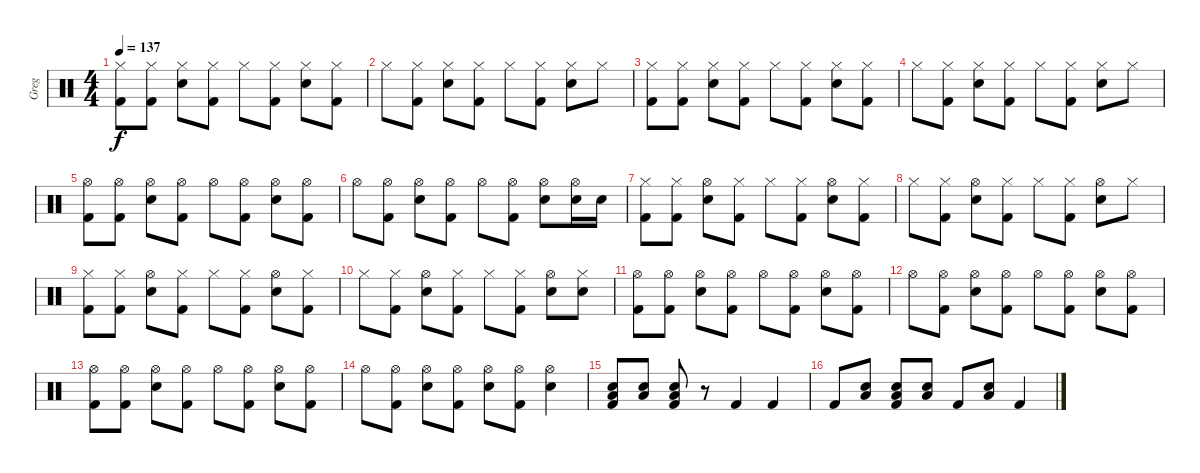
\track ("Greg" "Greg") {instrument percussion}
\staff {score}
\articulation defaults
\ts (4 4)
\tempo 137
\clef neutral
\ks c
("Hi-Hat (closed)" "Kick (hit) 2").8{dy f} ("Hi-Hat (closed)" "Kick (hit) 2").8 ("Hi-Hat (closed)" "Electric Snare (hit)").8 ("Hi-Hat (closed)" "Kick (hit) 2").8 "Hi-Hat (closed)".8 ("Hi-Hat (closed)" "Kick (hit) 2").8 ("Hi-Hat (closed)" "Electric Snare (hit)").8 ("Hi-Hat (closed)" "Kick (hit) 2").8 |
"Hi-Hat (closed)".8 ("Hi-Hat (closed)" "Kick (hit) 2").8 ("Hi-Hat (closed)" "Electric Snare (hit)").8 ("Hi-Hat (closed)" "Kick (hit) 2").8 "Hi-Hat (closed)".8 ("Hi-Hat (closed)" "Kick (hit) 2").8 ("Hi-Hat (closed)" "Electric Snare (hit)").8 "Hi-Hat (closed)".8 |
("Hi-Hat (closed)" "Kick (hit) 2").8 ("Hi-Hat (closed)" "Kick (hit) 2").8 ("Hi-Hat (closed)" "Electric Snare (hit)").8 ("Hi-Hat (closed)" "Kick (hit) 2").8 "Hi-Hat (closed)".8 ("Hi-Hat (closed)" "Kick (hit) 2").8 ("Hi-Hat (closed)" "Electric Snare (hit)").8 ("Hi-Hat (closed)" "Kick (hit) 2").8 |
"Hi-Hat (closed)".8 ("Hi-Hat (closed)" "Kick (hit) 2").8 ("Hi-Hat (closed)" "Electric Snare (hit)").8 ("Hi-Hat (closed)" "Kick (hit) 2").8 "Hi-Hat (closed)".8 ("Hi-Hat (closed)" "Kick (hit) 2").8 ("Hi-Hat (closed)" "Electric Snare (hit)").8 "Hi-Hat (closed)".8 |
("Hi-Hat (open)" "Kick (hit) 2").8 ("Hi-Hat (open)" "Kick (hit) 2").8 ("Hi-Hat (open)" "Electric Snare (hit)").8 ("Hi-Hat (open)" "Kick (hit) 2").8 "Hi-Hat (open)".8 ("Hi-Hat (open)" "Kick (hit) 2").8 ("Hi-Hat (open)" "Electric Snare (hit)").8 ("Hi-Hat (open)" "Kick (hit) 2").8 |
"Hi-Hat (open)".8 ("Hi-Hat (open)" "Kick (hit) 2").8 ("Hi-Hat (open)" "Electric Snare (hit)").8 ("Hi-Hat (open)" "Kick (hit) 2").8 "Hi-Hat (open)".8 ("Hi-Hat (open)" "Kick (hit) 2").8 ("Hi-Hat (open)" "Electric Snare (hit)").8 ("Hi-Hat (open)" "Electric Snare (hit)").16 "Electric Snare (hit)".16 |
("Hi-Hat (closed)" "Kick (hit) 2").8 ("Hi-Hat (closed)" "Kick (hit) 2").8 ("Hi-Hat (open)" "Electric Snare (hit)").8 ("Hi-Hat (closed)" "Kick (hit) 2").8 "Hi-Hat (closed)".8 ("Hi-Hat (closed)" "Kick (hit) 2").8 ("Hi-Hat (open)" "Electric Snare (hit)").8 ("Hi-Hat (closed)" "Kick (hit) 2").8 |
"Hi-Hat (closed)".8 ("Hi-Hat (closed)" "Kick (hit) 2").8 ("Hi-Hat (open)" "Electric Snare (hit)").8 ("Hi-Hat (closed)" "Kick (hit) 2").8 "Hi-Hat (closed)".8 ("Hi-Hat (closed)" "Kick (hit) 2").8 ("Hi-Hat (open)" "Electric Snare (hit)").8 "Hi-Hat (closed)".8 |
("Hi-Hat (closed)" "Kick (hit) 2").8 ("Hi-Hat (closed)" "Kick (hit) 2").8 ("Hi-Hat (open)" "Electric Snare (hit)").8 ("Hi-Hat (closed)" "Kick (hit) 2").8 "Hi-Hat (closed)".8 ("Hi-Hat (closed)" "Kick (hit) 2").8 ("Hi-Hat (open)" "Electric Snare (hit)").8 ("Hi-Hat (closed)" "Kick (hit) 2").8 |
"Hi-Hat (closed)".8 ("Hi-Hat (closed)" "Kick (hit) 2").8 ("Hi-Hat (open)" "Electric Snare (hit)").8 ("Hi-Hat (closed)" "Kick (hit) 2").8 "Hi-Hat (closed)".8 ("Hi-Hat (closed)" "Kick (hit) 2").8 ("Hi-Hat (open)" "Electric Snare (hit)").8 ("Hi-Hat (closed)" "Electric Snare (hit)").8 |
("Hi-Hat (open)" "Kick (hit) 2").8 ("Hi-Hat (open)" "Kick (hit) 2").8 ("Hi-Hat (open)" "Electric Snare (hit)").8 ("Hi-Hat (open)" "Kick (hit) 2").8 "Hi-Hat (open)".8 ("Hi-Hat (open)" "Kick (hit) 2").8 ("Hi-Hat (open)" "Electric Snare (hit)").8 ("Hi-Hat (open)" "Kick (hit) 2").8 |
"Hi-Hat (open)".8 ("Hi-Hat (open)" "Kick (hit) 2").8 ("Hi-Hat (open)" "Electric Snare (hit)").8 ("Hi-Hat (open)" "Kick (hit) 2").8 "Hi-Hat (open)".8 ("Hi-Hat (open)" "Kick (hit) 2").8 ("Hi-Hat (open)" "Electric Snare (hit)").8 ("Hi-Hat (open)" "Kick (hit) 2").8 |
("Hi-Hat (open)" "Kick (hit) 2").8 ("Hi-Hat (open)" "Kick (hit) 2").8 ("Hi-Hat (open)" "Electric Snare (hit)").8 ("Hi-Hat (open)" "Kick (hit) 2").8 "Hi-Hat (open)".8 ("Hi-Hat (open)" "Kick (hit) 2").8 ("Hi-Hat (open)" "Electric Snare (hit)").8 ("Hi-Hat (open)" "Kick (hit) 2").8 |
"Hi-Hat (open)".8 ("Hi-Hat (open)" "Kick (hit) 2").8 ("Hi-Hat (open)" "Electric Snare (hit)").8 ("Hi-Hat (open)" "Kick (hit) 2").8 ("Hi-Hat (open)" "Electric Snare (hit)").8 ("Hi-Hat (open)" "Kick (hit) 2").8 ("Hi-Hat (open)" "Electric Snare (hit)").4 |
("Electric Snare (hit)" "Low Floor Tom (hit)" "Kick (hit) 2").8 ("Electric Snare (hit)" "Low Floor Tom (hit)").8 ("Electric Snare (hit)" "Low Floor Tom (hit)" "Kick (hit) 2").8 r.8 "Kick (hit) 2".4 "Kick (hit) 2".4 |
"Kick (hit) 2".8 ("Electric Snare (hit)" "Low Floor Tom (hit)").8 ("Electric Snare (hit)" "Low Floor Tom (hit)" "Kick (hit) 2").8 ("Electric Snare (hit)" "Low Floor Tom (hit)").8 "Kick (hit) 2".8 ("Electric Snare (hit)" "Low Floor Tom (hit)").8 "Kick (hit) 2".4
